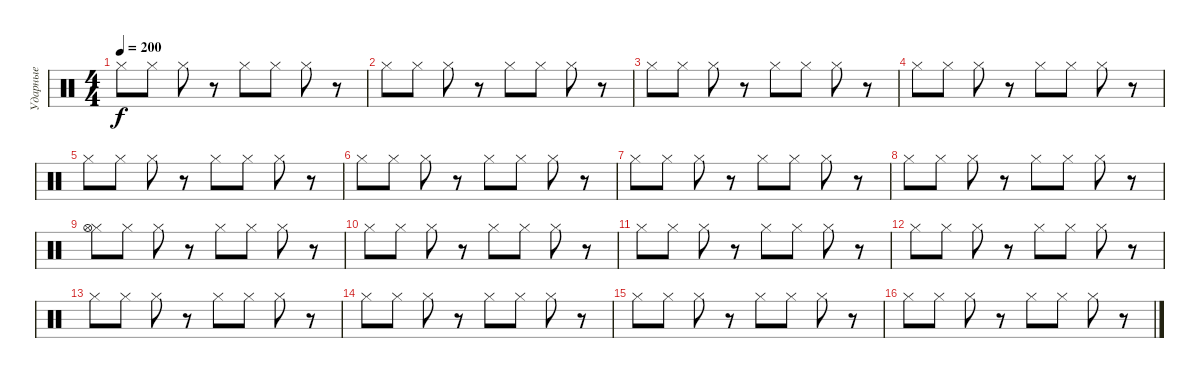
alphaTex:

\track ("Ударные" "Ударные") {instrument percussion}
\staff {score}
\articulation defaults
\ts (4 4)
\tempo 200
\clef neutral
\ks c "Hi-Hat (closed)".8{dy f} "Hi-Hat (closed)".8 "Hi-Hat (closed)".8
r.8 "Hi-Hat (closed)".8 "Hi-Hat (closed)".8 "Hi-Hat (closed)".8 r.8 |
"Hi-Hat (closed)".8 "Hi-Hat (closed)".8 "Hi-Hat (closed)".8 r.8 "Hi-Hat (closed)".8 "Hi-Hat (closed)".8 "Hi-Hat (closed)".8 r.8 |
"Hi-Hat (closed)".8 "Hi-Hat (closed)".8 "Hi-Hat (closed)".8 r.8 "Hi-Hat (closed)".8 "Hi-Hat (closed)".8 "Hi-Hat (closed)".8 r.8 |
"Hi-Hat (closed)".8 "Hi-Hat (closed)".8 "Hi-Hat (closed)".8 r.8 "Hi-Hat (closed)".8 "Hi-Hat (closed)".8 "Hi-Hat (closed)".8 r.8 |
"Hi-Hat (closed)".8 "Hi-Hat (closed)".8 "Hi-Hat (closed)".8 r.8 "Hi-Hat (closed)".8 "Hi-Hat (closed)".8 "Hi-Hat (closed)".8 r.8 |
"Hi-Hat (closed)".8 "Hi-Hat (closed)".8 "Hi-Hat (closed)".8 r.8 "Hi-Hat (closed)".8 "Hi-Hat (closed)".8 "Hi-Hat (closed)".8 r.8 |
"Hi-Hat (closed)".8 "Hi-Hat (closed)".8 "Hi-Hat (closed)".8 r.8 "Hi-Hat (closed)".8 "Hi-Hat (closed)".8 "Hi-Hat (closed)".8 r.8 |
"Hi-Hat (closed)".8 "Hi-Hat (closed)".8 "Hi-Hat (closed)".8 r.8 "Hi-Hat (closed)".8 "Hi-Hat (closed)".8 "Hi-Hat (closed)".8 r.8 |
("Hi-Hat (closed)" "Hi-Hat (open)").8 "Hi-Hat (closed)".8 "Hi-Hat (closed)".8 r.8 "Hi-Hat (closed)".8 "Hi-Hat (closed)".8 "Hi-Hat (closed)".8 r.8 |
"Hi-Hat (closed)".8 "Hi-Hat (closed)".8 "Hi-Hat (closed)".8 r.8 "Hi-Hat (closed)".8 "Hi-Hat (closed)".8 "Hi-Hat (closed)".8 r.8 |
"Hi-Hat (closed)".8 "Hi-Hat (closed)".8 "Hi-Hat (closed)".8 r.8 "Hi-Hat (closed)".8 "Hi-Hat (closed)".8 "Hi-Hat (closed)".8 r.8 |
"Hi-Hat (closed)".8 "Hi-Hat (closed)".8 "Hi-Hat (closed)".8 r.8 "Hi-Hat (closed)".8 "Hi-Hat (closed)".8 "Hi-Hat (closed)".8 r.8 |
"Hi-Hat (closed)".8 "Hi-Hat (closed)".8 "Hi-Hat (closed)".8 r.8 "Hi-Hat (closed)".8 "Hi-Hat (closed)".8 "Hi-Hat (closed)".8 r.8 |
"Hi-Hat (closed)".8 "Hi-Hat (closed)".8 "Hi-Hat (closed)".8 r.8 "Hi-Hat (closed)".8 "Hi-Hat (closed)".8 "Hi-Hat (closed)".8 r.8 |
"Hi-Hat (closed)".8 "Hi-Hat (closed)".8 "Hi-Hat (closed)".8 r.8 "Hi-Hat (closed)".8 "Hi-Hat (closed)".8 "Hi-Hat (closed)".8 r.8 |
"Hi-Hat (closed)".8 "Hi-Hat (closed)".8 "Hi-Hat (closed)".8 r.8 "Hi-Hat (closed)".8 "Hi-Hat (closed)".8 "Hi-Hat (closed)".8 r.8
